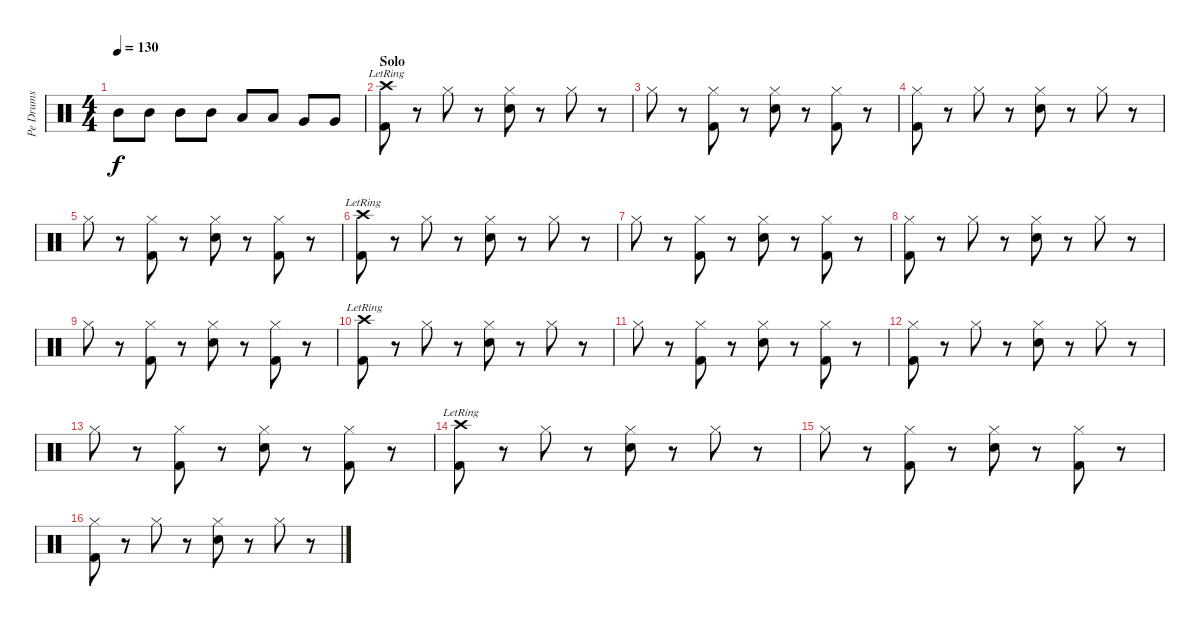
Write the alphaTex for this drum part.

\track ("Pe Drums" "Pe Drums") {instrument percussion}
\staff {score}
\articulation defaults
\ts (4 4)
\tempo 130
\clef neutral
\ks c "Mid Tom (hit)".8{dy f} "Mid Tom (hit)".8 "Mid Tom (hit)".8 "Mid Tom (hit)".8 "Low Tom (hit)".8 "Low Tom (hit)".8 "Very Low Tom (hit)".8 "Very Low Tom (hit)".8
|
\section ("" "Solo")
("Crash high (hit)"{lr} "Kick (hit) 2").8 r.8 "Hi-Hat (closed)".8 r.8 ("Hi-Hat (closed)" "Electric Snare (hit)").8 r.8 "Hi-Hat (closed)".8 r.8 |
"Hi-Hat (closed)".8 r.8 ("Hi-Hat (closed)" "Kick (hit) 2").8 r.8 ("Hi-Hat (closed)" "Electric Snare (hit)").8 r.8 ("Hi-Hat (closed)" "Kick (hit) 2").8 r.8 |
("Hi-Hat (closed)" "Kick (hit) 2").8 r.8 "Hi-Hat (closed)".8 r.8 ("Hi-Hat (closed)" "Electric Snare (hit)").8 r.8 "Hi-Hat (closed)".8 r.8 |
"Hi-Hat (closed)".8 r.8 ("Hi-Hat (closed)" "Kick (hit) 2").8 r.8 ("Hi-Hat (closed)" "Electric Snare (hit)").8 r.8 ("Hi-Hat (closed)" "Kick (hit) 2").8 r.8 |
("Crash high (hit)"{lr} "Kick (hit) 2").8 r.8 "Hi-Hat (closed)".8 r.8 ("Hi-Hat (closed)" "Electric Snare (hit)").8 r.8 "Hi-Hat (closed)".8 r.8 |
"Hi-Hat (closed)".8 r.8 ("Hi-Hat (closed)" "Kick (hit) 2").8 r.8 ("Hi-Hat (closed)" "Electric Snare (hit)").8 r.8 ("Hi-Hat (closed)" "Kick (hit) 2").8 r.8 |
("Hi-Hat (closed)" "Kick (hit) 2").8 r.8 "Hi-Hat (closed)".8 r.8 ("Hi-Hat (closed)" "Electric Snare (hit)").8 r.8 "Hi-Hat (closed)".8 r.8 |
"Hi-Hat (closed)".8 r.8 ("Hi-Hat (closed)" "Kick (hit) 2").8 r.8 ("Hi-Hat (closed)" "Electric Snare (hit)").8 r.8 ("Hi-Hat (closed)" "Kick (hit) 2").8 r.8 |
("Crash high (hit)"{lr} "Kick (hit) 2").8 r.8 "Hi-Hat (closed)".8 r.8 ("Hi-Hat (closed)" "Electric Snare (hit)").8 r.8 "Hi-Hat (closed)".8 r.8 |
"Hi-Hat (closed)".8 r.8 ("Hi-Hat (closed)" "Kick (hit) 2").8 r.8 ("Hi-Hat (closed)" "Electric Snare (hit)").8 r.8 ("Hi-Hat (closed)" "Kick (hit) 2").8 r.8 |
("Hi-Hat (closed)" "Kick (hit) 2").8 r.8 "Hi-Hat (closed)".8 r.8 ("Hi-Hat (closed)" "Electric Snare (hit)").8 r.8 "Hi-Hat (closed)".8 r.8 |
"Hi-Hat (closed)".8 r.8 ("Hi-Hat (closed)" "Kick (hit) 2").8 r.8 ("Hi-Hat (closed)" "Electric Snare (hit)").8 r.8 ("Hi-Hat (closed)" "Kick (hit) 2").8 r.8 |
("Crash high (hit)"{lr} "Kick (hit) 2").8 r.8 "Hi-Hat (closed)".8 r.8 ("Hi-Hat (closed)" "Electric Snare (hit)").8 r.8 "Hi-Hat (closed)".8 r.8 |
"Hi-Hat (closed)".8 r.8 ("Hi-Hat (closed)" "Kick (hit) 2").8 r.8 ("Hi-Hat (closed)" "Electric Snare (hit)").8 r.8 ("Hi-Hat (closed)" "Kick (hit) 2").8 r.8 |
("Hi-Hat (closed)" "Kick (hit) 2").8 r.8 "Hi-Hat (closed)".8 r.8 ("Hi-Hat (closed)" "Electric Snare (hit)").8 r.8 "Hi-Hat (closed)".8 r.8
